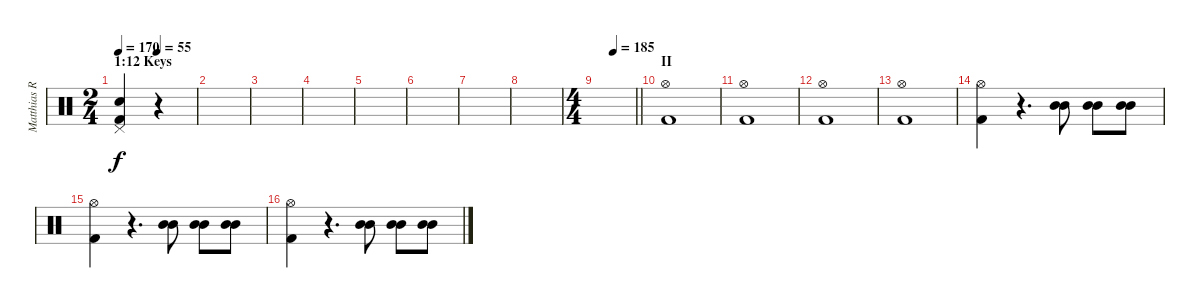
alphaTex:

\track ("Matthias R." "Matthias R") {instrument percussion}
\staff {score}
\articulation defaults
\ts (2 4)
\section ("" "1:12 Keys")
\tempo 170
\tempo (55 0.5)
\clef neutral
\ks c
("Kick (hit) 2" "Snare (hit) 2" "Pedal Hi-Hat (hit)").4{dy f} r.4 |
|
|
|
|
|
|
|
\ts (4 4)
\tempo (185 0.4375)
\barLineRight lightlight
|
\section ("" "II")
("Kick (hit) 2" "Hi-Hat (open)").1 |
("Kick (hit) 2" "Hi-Hat (open)").1 |
("Kick (hit) 2" "Hi-Hat (open)").1 |
("Kick (hit) 2" "Hi-Hat (open)").1 |
("Kick (hit) 2" "Hi-Hat (open)").4 r.4{d} ("Mid Tom (hit)" "Mid Tom (hit)").8 ("Mid Tom (hit)" "Mid Tom (hit)").8 ("Mid Tom (hit)" "Mid Tom (hit)").8 |
("Kick (hit) 2" "Hi-Hat (open)").4 r.4{d} ("Mid Tom (hit)" "Mid Tom (hit)").8 ("Mid Tom (hit)" "Mid Tom (hit)").8 ("Mid Tom (hit)" "Mid Tom (hit)").8 |
("Kick (hit) 2" "Hi-Hat (open)").4 r.4{d} ("Mid Tom (hit)" "Mid Tom (hit)").8 ("Mid Tom (hit)" "Mid Tom (hit)").8 ("Mid Tom (hit)" "Mid Tom (hit)").8
